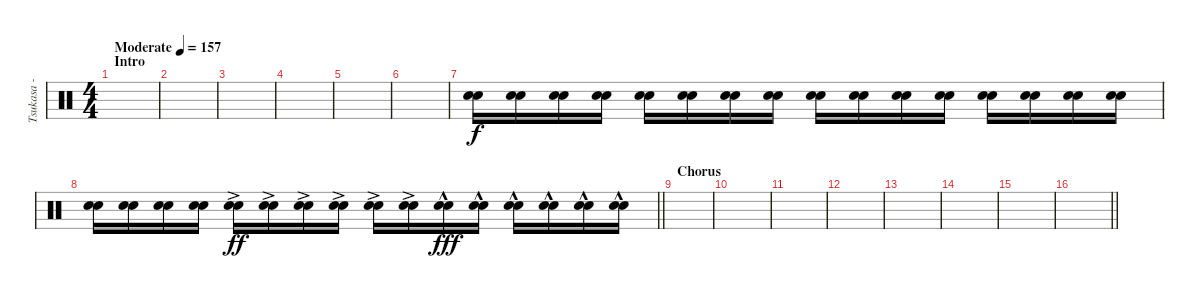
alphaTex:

\track ("Tsukasa - Drums [2]" "Tsukasa - ") {instrument percussion}
\staff {score}
\articulation defaults
\ts (4 4)
\section ("" "Intro")
\tempo (157 "Moderate")
\clef neutral
\ks c
|
|
|
|
|
|
("Electric Snare (hit)" "Snare (hit) 2").16 ("Electric Snare (hit)" "Snare (hit) 2").16 ("Electric Snare (hit)" "Snare (hit) 2").16 ("Electric Snare (hit)" "Snare (hit) 2").16 ("Electric Snare (hit)" "Snare (hit) 2").16 ("Electric Snare (hit)" "Snare (hit) 2").16 ("Electric Snare (hit)" "Snare (hit) 2").16 ("Electric Snare (hit)" "Snare (hit) 2").16 ("Electric Snare (hit)" "Snare (hit) 2").16 ("Electric Snare (hit)" "Snare (hit) 2").16 ("Electric Snare (hit)" "Snare (hit) 2").16 ("Electric Snare (hit)" "Snare (hit) 2").16 ("Electric Snare (hit)" "Snare (hit) 2").16 ("Electric Snare (hit)" "Snare (hit) 2").16 ("Electric Snare (hit)" "Snare (hit) 2").16 ("Electric Snare (hit)" "Snare (hit) 2").16 |
\barLineRight lightlight
("Electric Snare (hit)" "Snare (hit) 2").16 ("Electric Snare (hit)" "Snare (hit) 2").16 ("Electric Snare (hit)" "Snare (hit) 2").16 ("Electric Snare (hit)" "Snare (hit) 2").16 ("Electric Snare (hit)"{ac} "Snare (hit) 2"{ac}).16{dy ff} ("Electric Snare (hit)"{ac} "Snare (hit) 2"{ac}).16 ("Electric Snare (hit)"{ac} "Snare (hit) 2"{ac}).16 ("Electric Snare (hit)"{ac} "Snare (hit) 2"{ac}).16 ("Electric Snare (hit)"{ac} "Snare (hit) 2"{ac}).16 ("Electric Snare (hit)"{ac} "Snare (hit) 2"{ac}).16 ("Electric Snare (hit)"{hac} "Snare (hit) 2"{hac}).16{dy fff} ("Electric Snare (hit)"{hac} "Snare (hit) 2"{hac}).16 ("Electric Snare (hit)"{hac} "Snare (hit) 2"{hac}).16 ("Electric Snare (hit)"{hac} "Snare (hit) 2"{hac}).16 ("Electric Snare (hit)"{hac} "Snare (hit) 2"{hac}).16 ("Electric Snare (hit)"{hac} "Snare (hit) 2"{hac}).16 |
\section ("" "Chorus")
|
|
|
|
|
|
|
\barLineRight lightlight
